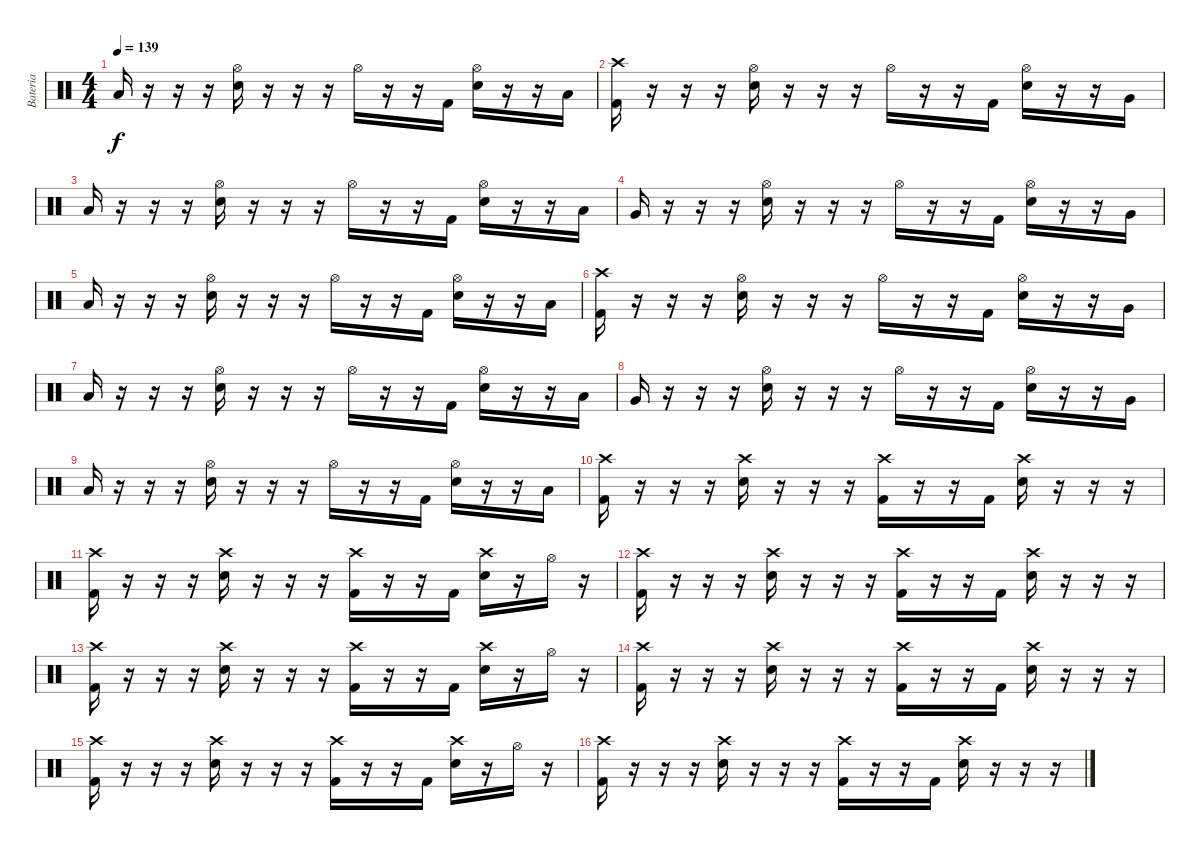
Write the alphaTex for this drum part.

\track ("Bateria" "Bateria") {instrument percussion}
\staff {score}
\articulation defaults
\ts (4 4)
\tempo 139
\clef neutral
\ks c "Low Tom (hit)".16{dy f}
r.16 r.16 r.16 ("Hi-Hat (open)" "Electric Snare (hit)").16 r.16 r.16 r.16 "Hi-Hat (open)".16 r.16 r.16 "Kick (hit) 2".16 ("Hi-Hat (open)" "Electric Snare (hit)").16 r.16 r.16 "Low Tom (hit)".16 |
("Crash high (hit)" "Kick (hit) 2").16 r.16 r.16 r.16 ("Hi-Hat (open)" "Electric Snare (hit)").16 r.16 r.16 r.16 "Hi-Hat (open)".16 r.16 r.16 "Kick (hit) 2".16 ("Hi-Hat (open)" "Electric Snare (hit)").16 r.16 r.16 "Very Low Tom (hit)".16 |
"Low Tom (hit)".16 r.16 r.16 r.16 ("Hi-Hat (open)" "Electric Snare (hit)").16 r.16 r.16 r.16 "Hi-Hat (open)".16 r.16 r.16 "Kick (hit) 2".16 ("Hi-Hat (open)" "Electric Snare (hit)").16 r.16 r.16 "Low Tom (hit)".16 |
"Very Low Tom (hit)".16 r.16 r.16 r.16 ("Hi-Hat (open)" "Electric Snare (hit)").16 r.16 r.16 r.16 "Hi-Hat (open)".16 r.16 r.16 "Kick (hit) 2".16 ("Hi-Hat (open)" "Electric Snare (hit)").16 r.16 r.16 "Very Low Tom (hit)".16 |
"Low Tom (hit)".16 r.16 r.16 r.16 ("Hi-Hat (open)" "Electric Snare (hit)").16 r.16 r.16 r.16 "Hi-Hat (open)".16 r.16 r.16 "Kick (hit) 2".16 ("Hi-Hat (open)" "Electric Snare (hit)").16 r.16 r.16 "Low Tom (hit)".16 |
("Crash high (hit)" "Kick (hit) 2").16 r.16 r.16 r.16 ("Hi-Hat (open)" "Electric Snare (hit)").16 r.16 r.16 r.16 "Hi-Hat (open)".16 r.16 r.16 "Kick (hit) 2".16 ("Hi-Hat (open)" "Electric Snare (hit)").16 r.16 r.16 "Very Low Tom (hit)".16 |
"Low Tom (hit)".16 r.16 r.16 r.16 ("Hi-Hat (open)" "Electric Snare (hit)").16 r.16 r.16 r.16 "Hi-Hat (open)".16 r.16 r.16 "Kick (hit) 2".16 ("Hi-Hat (open)" "Electric Snare (hit)").16 r.16 r.16 "Low Tom (hit)".16 |
"Very Low Tom (hit)".16 r.16 r.16 r.16 ("Hi-Hat (open)" "Electric Snare (hit)").16 r.16 r.16 r.16 "Hi-Hat (open)".16 r.16 r.16 "Kick (hit) 2".16 ("Hi-Hat (open)" "Electric Snare (hit)").16 r.16 r.16 "Very Low Tom (hit)".16 |
"Low Tom (hit)".16 r.16 r.16 r.16 ("Hi-Hat (open)" "Electric Snare (hit)").16 r.16 r.16 r.16 "Hi-Hat (open)".16 r.16 r.16 "Kick (hit) 2".16 ("Hi-Hat (open)" "Electric Snare (hit)").16 r.16 r.16 "Low Tom (hit)".16 |
("Crash high (hit)" "Kick (hit) 2").16 r.16 r.16 r.16 ("Crash high (hit)" "Electric Snare (hit)").16 r.16 r.16 r.16 ("Crash high (hit)" "Kick (hit) 2").16 r.16 r.16 "Kick (hit) 2".16 ("Crash high (hit)" "Electric Snare (hit)").16 r.16 r.16 r.16 |
("Crash high (hit)" "Kick (hit) 2").16 r.16 r.16 r.16 ("Crash high (hit)" "Electric Snare (hit)").16 r.16 r.16 r.16 ("Crash high (hit)" "Kick (hit) 2").16 r.16 r.16 "Kick (hit) 2".16 ("Crash high (hit)" "Electric Snare (hit)").16 r.16 "Hi-Hat (open)".16 r.16 |
("Crash high (hit)" "Kick (hit) 2").16 r.16 r.16 r.16 ("Crash high (hit)" "Electric Snare (hit)").16 r.16 r.16 r.16 ("Crash high (hit)" "Kick (hit) 2").16 r.16 r.16 "Kick (hit) 2".16 ("Crash high (hit)" "Electric Snare (hit)").16 r.16 r.16 r.16 |
("Crash high (hit)" "Kick (hit) 2").16 r.16 r.16 r.16 ("Crash high (hit)" "Electric Snare (hit)").16 r.16 r.16 r.16 ("Crash high (hit)" "Kick (hit) 2").16 r.16 r.16 "Kick (hit) 2".16 ("Crash high (hit)" "Electric Snare (hit)").16 r.16 "Hi-Hat (open)".16 r.16 |
("Crash high (hit)" "Kick (hit) 2").16 r.16 r.16 r.16 ("Crash high (hit)" "Electric Snare (hit)").16 r.16 r.16 r.16 ("Crash high (hit)" "Kick (hit) 2").16 r.16 r.16 "Kick (hit) 2".16 ("Crash high (hit)" "Electric Snare (hit)").16 r.16 r.16 r.16 |
("Crash high (hit)" "Kick (hit) 2").16 r.16 r.16 r.16 ("Crash high (hit)" "Electric Snare (hit)").16 r.16 r.16 r.16 ("Crash high (hit)" "Kick (hit) 2").16 r.16 r.16 "Kick (hit) 2".16 ("Crash high (hit)" "Electric Snare (hit)").16 r.16 "Hi-Hat (open)".16 r.16 |
("Crash high (hit)" "Kick (hit) 2").16 r.16 r.16 r.16 ("Crash high (hit)" "Electric Snare (hit)").16 r.16 r.16 r.16 ("Crash high (hit)" "Kick (hit) 2").16 r.16 r.16 "Kick (hit) 2".16 ("Crash high (hit)" "Electric Snare (hit)").16 r.16 r.16 r.16
